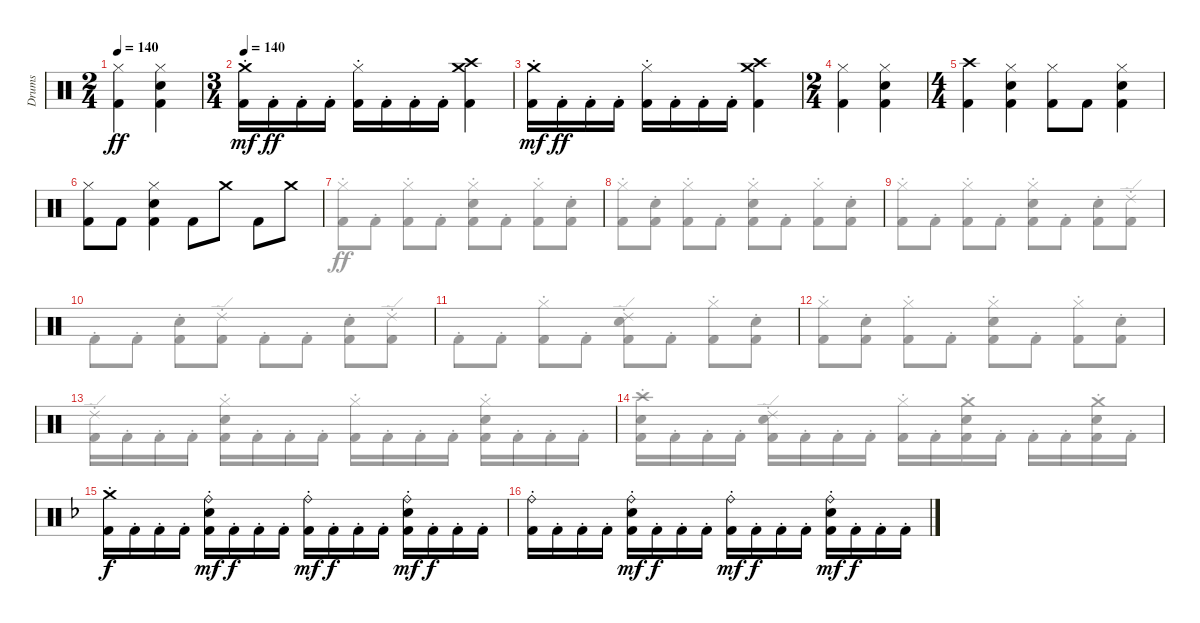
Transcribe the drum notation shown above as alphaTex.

\track ("Drums" "Drums") {instrument percussion}
\staff {score}
\articulation defaults
\voice
\ts (2 4)
\tempo 140
\clef neutral
\ks aminor
("Hi-Hat (closed)" "Kick (hit) 2").4{dy ff} ("Hi-Hat (closed)" "Kick (hit) 2" "Electric Snare (hit)").4 |
\ts (3 4)
\tempo 140
("Kick (hit) 2"{st} "Crash medium (hit)").16{dy mf} "Kick (hit) 2"{st}.16{dy ff} "Kick (hit) 2"{st}.16 "Kick (hit) 2"{st}.16 ("Kick (hit) 2"{st} "Hi-Hat (closed)").16 "Kick (hit) 2"{st}.16 "Kick (hit) 2"{st}.16 "Kick (hit) 2"{st}.16 ("Kick (hit) 2" "Crash medium (hit)" "Crash high (hit)").4 |
("Kick (hit) 2"{st} "Crash medium (hit)").16{dy mf} "Kick (hit) 2"{st}.16{dy ff} "Kick (hit) 2"{st}.16 "Kick (hit) 2"{st}.16 ("Kick (hit) 2"{st} "Hi-Hat (closed)").16 "Kick (hit) 2"{st}.16 "Kick (hit) 2"{st}.16 "Kick (hit) 2"{st}.16 ("Kick (hit) 2" "Crash medium (hit)" "Crash high (hit)").4 |
\ts (2 4)
("Hi-Hat (closed)" "Kick (hit) 2").4 ("Hi-Hat (closed)" "Kick (hit) 2" "Electric Snare (hit)").4 |
\ts (4 4)
("Kick (hit) 2" "Crash high (hit)").4{volume 11} ("Kick (hit) 2" "Hi-Hat (closed)" "Electric Snare (hit)").4 ("Kick (hit) 2" "Hi-Hat (closed)").8 "Kick (hit) 2".8 ("Kick (hit) 2" "Hi-Hat (closed)" "Electric Snare (hit)").4 |
("Kick (hit) 2" "Hi-Hat (closed)").8 "Kick (hit) 2".8 ("Kick (hit) 2" "Hi-Hat (closed)" "Electric Snare (hit)").4 "Kick (hit) 2".8 "Crash medium (hit)".8 "Kick (hit) 2".8 "Crash medium (hit)".8 |
|
|
|
|
|
|
|
|
\ks dminor
("Kick (hit) 2"{st} "Crash medium (hit)").16{dy f volume 10} "Kick (hit) 2"{st}.16 "Kick (hit) 2"{st}.16 "Kick (hit) 2"{st}.16 ("Kick (hit) 2"{st} "Ride (bell)" "Electric Snare (hit)").16{dy mf} "Kick (hit) 2"{st}.16{dy f} "Kick (hit) 2"{st}.16 "Kick (hit) 2"{st}.16 ("Kick (hit) 2"{st} "Ride (bell)").16{dy mf} "Kick (hit) 2"{st}.16{dy f} "Kick (hit) 2"{st}.16 "Kick (hit) 2"{st}.16 ("Kick (hit) 2"{st} "Ride (bell)" "Electric Snare (hit)").16{dy mf} "Kick (hit) 2"{st}.16{dy f} "Kick (hit) 2"{st}.16 "Kick (hit) 2"{st}.16 |
("Kick (hit) 2"{st} "Ride (bell)").16 "Kick (hit) 2"{st}.16 "Kick (hit) 2"{st}.16 "Kick (hit) 2"{st}.16 ("Kick (hit) 2"{st} "Ride (bell)" "Electric Snare (hit)").16{dy mf} "Kick (hit) 2"{st}.16{dy f} "Kick (hit) 2"{st}.16 "Kick (hit) 2"{st}.16 ("Kick (hit) 2"{st} "Ride (bell)").16{dy mf} "Kick (hit) 2"{st}.16{dy f} "Kick (hit) 2"{st}.16 "Kick (hit) 2"{st}.16 ("Kick (hit) 2"{st} "Ride (bell)" "Electric Snare (hit)").16{dy mf} "Kick (hit) 2"{st}.16{dy f} "Kick (hit) 2"{st}.16 "Kick (hit) 2"{st}.16
\voice
\clef neutral
\ottava regular
\simile none
\ks aminor
|
|
|
|
|
|
("Kick (hit) 2"{st} "Hi-Hat (closed)").8{dy ff} "Kick (hit) 2"{st}.8 ("Kick (hit) 2"{st} "Hi-Hat (closed)").8 "Kick (hit) 2"{st}.8 ("Kick (hit) 2"{st} "Hi-Hat (closed)" "Electric Snare (hit)").8 "Kick (hit) 2"{st}.8 ("Kick (hit) 2"{st} "Hi-Hat (closed)").8 ("Kick (hit) 2"{st} "Electric Snare (hit)").8 |
("Kick (hit) 2"{st} "Hi-Hat (closed)").8 ("Kick (hit) 2"{st} "Electric Snare (hit)").8 ("Kick (hit) 2"{st} "Hi-Hat (closed)").8 "Kick (hit) 2"{st}.8 ("Kick (hit) 2"{st} "Hi-Hat (closed)" "Electric Snare (hit)").8 "Kick (hit) 2"{st}.8 ("Kick (hit) 2"{st} "Hi-Hat (closed)").8 ("Kick (hit) 2"{st} "Electric Snare (hit)").8 |
("Kick (hit) 2"{st} "Hi-Hat (closed)").8 "Kick (hit) 2"{st}.8 ("Kick (hit) 2"{st} "Hi-Hat (closed)").8 "Kick (hit) 2"{st}.8 ("Kick (hit) 2"{st} "Hi-Hat (closed)" "Electric Snare (hit)").8 "Kick (hit) 2"{st}.8 ("Kick (hit) 2"{st} "Electric Snare (hit)").8 ("Kick (hit) 2"{st} "Ride (edge) 2").8 |
"Kick (hit) 2"{st}.8 "Kick (hit) 2"{st}.8 ("Kick (hit) 2"{st} "Electric Snare (hit)").8 ("Kick (hit) 2"{st} "Ride (edge) 2").8 "Kick (hit) 2"{st}.8 "Kick (hit) 2"{st}.8 ("Kick (hit) 2"{st} "Electric Snare (hit)").8 ("Kick (hit) 2"{st} "Ride (edge) 2").8 |
"Kick (hit) 2"{st}.8 "Kick (hit) 2"{st}.8 ("Kick (hit) 2"{st} "Hi-Hat (closed)").8 "Kick (hit) 2"{st}.8 ("Kick (hit) 2"{st} "Ride (edge) 2" "Electric Snare (hit)").8 "Kick (hit) 2"{st}.8 ("Kick (hit) 2"{st} "Hi-Hat (closed)").8 ("Kick (hit) 2"{st} "Electric Snare (hit)").8 |
("Kick (hit) 2"{st} "Hi-Hat (closed)").8 ("Kick (hit) 2"{st} "Electric Snare (hit)").8 ("Kick (hit) 2"{st} "Hi-Hat (closed)").8 "Kick (hit) 2"{st}.8 ("Kick (hit) 2"{st} "Hi-Hat (closed)" "Electric Snare (hit)").8 "Kick (hit) 2"{st}.8 ("Kick (hit) 2"{st} "Hi-Hat (closed)").8 ("Kick (hit) 2"{st} "Electric Snare (hit)").8 |
("Kick (hit) 2"{st} "Ride (edge) 2").16 "Kick (hit) 2"{st}.16 "Kick (hit) 2"{st}.16 "Kick (hit) 2"{st}.16 ("Kick (hit) 2"{st} "Hi-Hat (closed)" "Electric Snare (hit)").16 "Kick (hit) 2"{st}.16 "Kick (hit) 2"{st}.16 "Kick (hit) 2"{st}.16 ("Kick (hit) 2"{st} "Hi-Hat (closed)").16 "Kick (hit) 2"{st}.16 "Kick (hit) 2"{st}.16 "Kick (hit) 2"{st}.16 ("Kick (hit) 2"{st} "Hi-Hat (closed)" "Electric Snare (hit)").16 "Kick (hit) 2"{st}.16 "Kick (hit) 2"{st}.16 "Kick (hit) 2"{st}.16 |
("Kick (hit) 2"{st} "Crash high (hit)" "Electric Snare (hit)").16 "Kick (hit) 2"{st}.16 "Kick (hit) 2"{st}.16 "Kick (hit) 2"{st}.16 ("Kick (hit) 2"{st} "Ride (edge) 2" "Electric Snare (hit)").16 "Kick (hit) 2"{st}.16 "Kick (hit) 2"{st}.16 "Kick (hit) 2"{st}.16 ("Kick (hit) 2"{st} "Hi-Hat (closed)").16 "Kick (hit) 2"{st}.16 ("Kick (hit) 2"{st} "Crash medium (hit)" "Electric Snare (hit)").16 "Kick (hit) 2"{st}.16 "Kick (hit) 2"{st}.16 "Kick (hit) 2"{st}.16 ("Kick (hit) 2"{st} "Crash medium (hit)" "Electric Snare (hit)").16 "Kick (hit) 2"{st}.16 |
\ks dminor
|
